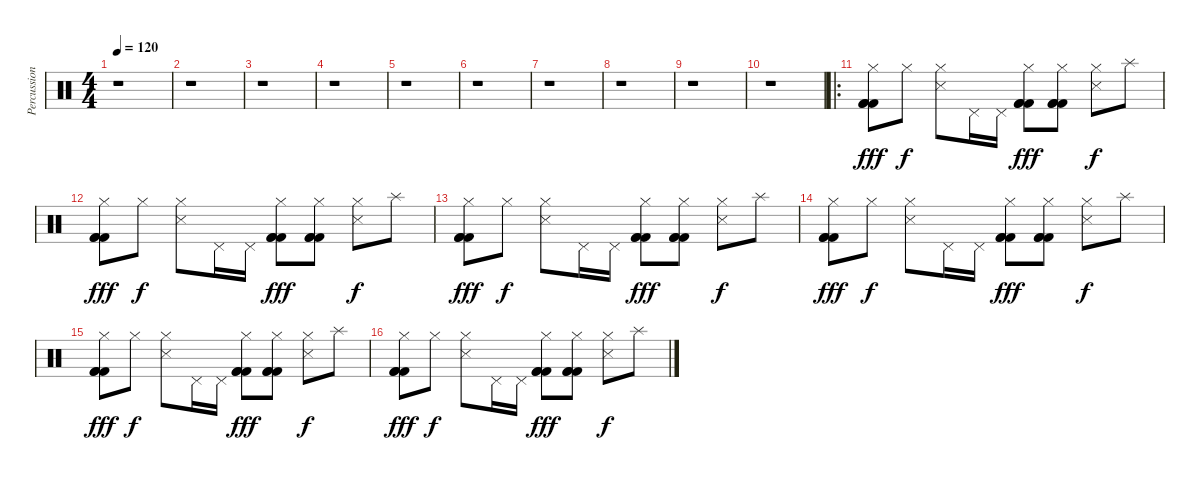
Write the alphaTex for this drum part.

\track ("Percussion" "Percussion") {instrument percussion}
\staff {score}
\articulation defaults
\ts (4 4)
\tempo 120
\clef neutral
\ks c
r.1{dy fff} |
r.1 |
r.1 |
r.1 |
r.1 |
r.1 |
r.1 |
r.1 |
r.1 |
r.1 |
\ro
("Hi-Hat (closed)" "Kick (hit) 2" "Kick (hit) 2" "Kick (hit) 2").8 "Hi-Hat (closed)".8{dy f} ("Hi-Hat (closed)" "Snare (side stick) 3").8 "Pedal Hi-Hat (hit)".16 "Pedal Hi-Hat (hit)".16 ("Hi-Hat (closed)" "Kick (hit) 2" "Kick (hit) 2" "Kick (hit) 2").8{dy fff} ("Hi-Hat (closed)" "Kick (hit) 2" "Kick (hit) 2" "Kick (hit) 2").8 ("Hi-Hat (closed)" "Snare (side stick) 3").8{dy f} "Splash (hit)".8 |
("Hi-Hat (closed)" "Kick (hit) 2" "Kick (hit) 2" "Kick (hit) 2").8{dy fff} "Hi-Hat (closed)".8{dy f} ("Hi-Hat (closed)" "Snare (side stick) 3").8 "Pedal Hi-Hat (hit)".16 "Pedal Hi-Hat (hit)".16 ("Hi-Hat (closed)" "Kick (hit) 2" "Kick (hit) 2" "Kick (hit) 2").8{dy fff} ("Hi-Hat (closed)" "Kick (hit) 2" "Kick (hit) 2" "Kick (hit) 2").8 ("Hi-Hat (closed)" "Snare (side stick) 3").8{dy f} "Splash (hit)".8 |
("Hi-Hat (closed)" "Kick (hit) 2" "Kick (hit) 2" "Kick (hit) 2").8{dy fff} "Hi-Hat (closed)".8{dy f} ("Hi-Hat (closed)" "Snare (side stick) 3").8 "Pedal Hi-Hat (hit)".16 "Pedal Hi-Hat (hit)".16 ("Hi-Hat (closed)" "Kick (hit) 2" "Kick (hit) 2" "Kick (hit) 2").8{dy fff} ("Hi-Hat (closed)" "Kick (hit) 2" "Kick (hit) 2" "Kick (hit) 2").8 ("Hi-Hat (closed)" "Snare (side stick) 3").8{dy f} "Splash (hit)".8 |
("Hi-Hat (closed)" "Kick (hit) 2" "Kick (hit) 2" "Kick (hit) 2").8{dy fff} "Hi-Hat (closed)".8{dy f} ("Hi-Hat (closed)" "Snare (side stick) 3").8 "Pedal Hi-Hat (hit)".16 "Pedal Hi-Hat (hit)".16 ("Hi-Hat (closed)" "Kick (hit) 2" "Kick (hit) 2" "Kick (hit) 2").8{dy fff} ("Hi-Hat (closed)" "Kick (hit) 2" "Kick (hit) 2" "Kick (hit) 2").8 ("Hi-Hat (closed)" "Snare (side stick) 3").8{dy f} "Splash (hit)".8 |
("Hi-Hat (closed)" "Kick (hit) 2" "Kick (hit) 2" "Kick (hit) 2").8{dy fff} "Hi-Hat (closed)".8{dy f} ("Hi-Hat (closed)" "Snare (side stick) 3").8 "Pedal Hi-Hat (hit)".16 "Pedal Hi-Hat (hit)".16 ("Hi-Hat (closed)" "Kick (hit) 2" "Kick (hit) 2" "Kick (hit) 2").8{dy fff} ("Hi-Hat (closed)" "Kick (hit) 2" "Kick (hit) 2" "Kick (hit) 2").8 ("Hi-Hat (closed)" "Snare (side stick) 3").8{dy f} "Splash (hit)".8 |
("Hi-Hat (closed)" "Kick (hit) 2" "Kick (hit) 2" "Kick (hit) 2").8{dy fff} "Hi-Hat (closed)".8{dy f} ("Hi-Hat (closed)" "Snare (side stick) 3").8 "Pedal Hi-Hat (hit)".16 "Pedal Hi-Hat (hit)".16 ("Hi-Hat (closed)" "Kick (hit) 2" "Kick (hit) 2" "Kick (hit) 2").8{dy fff} ("Hi-Hat (closed)" "Kick (hit) 2" "Kick (hit) 2" "Kick (hit) 2").8 ("Hi-Hat (closed)" "Snare (side stick) 3").8{dy f} "Splash (hit)".8
